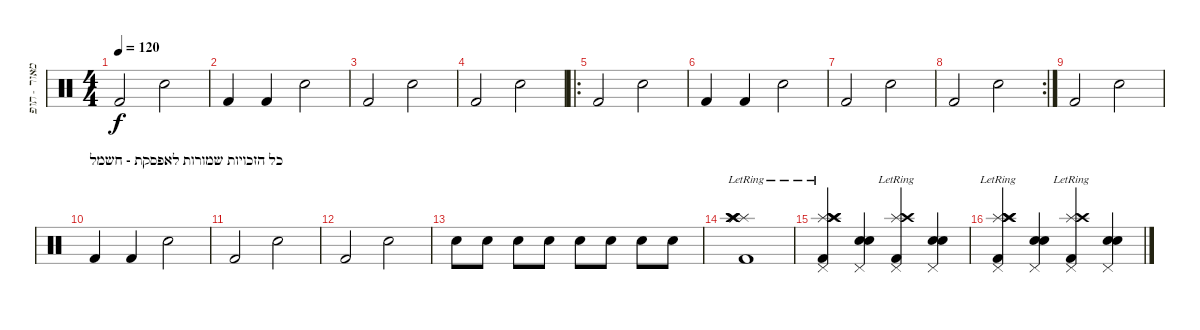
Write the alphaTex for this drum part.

\track ("מאור - תופים" "מאור - תופ") {instrument percussion}
\staff {score}
\articulation defaults
\ts (4 4)
\tempo 120
\clef neutral
\ks c "Kick (hit) 2".2{dy f} "Electric Snare (hit)".2
|
"Kick (hit) 2".4 "Kick (hit) 2".4 "Electric Snare (hit)".2 |
"Kick (hit) 2".2 "Electric Snare (hit)".2 |
"Kick (hit) 2".2 "Electric Snare (hit)".2 |
\ro "Kick (hit) 2".2 "Electric Snare (hit)".2
|
"Kick (hit) 2".4 "Kick (hit) 2".4 "Electric Snare (hit)".2 |
"Kick (hit) 2".2 "Electric Snare (hit)".2 |
\rc 2 "Kick (hit) 2".2 "Electric Snare (hit)".2
|
"Kick (hit) 2".2 "Electric Snare (hit)".2 |
\section ("" "כל הזכויות שמורות לאפסקת - חשמל")
"Kick (hit) 2".4 "Kick (hit) 2".4 "Electric Snare (hit)".2 |
"Kick (hit) 2".2 "Electric Snare (hit)".2 |
"Kick (hit) 2".2 "Electric Snare (hit)".2 |
"Electric Snare (hit)".8 "Electric Snare (hit)".8 "Electric Snare (hit)".8 "Electric Snare (hit)".8 "Electric Snare (hit)".8 "Electric Snare (hit)".8 "Electric Snare (hit)".8 "Electric Snare (hit)".8 |
("Kick (hit) 2"{lr} "Splash (hit)"{lr} "Crash high (hit)"{lr} "Splash (hit)"{lr} "Splash (hit)"{lr} "Crash high (hit)"{lr}).1 |
("Kick (hit) 2" "Splash (hit)" "Splash (hit)"{lr} "Crash high (hit)"{lr} "Crash high (hit)" "Pedal Hi-Hat (hit)").4 ("Electric Snare (hit)" "Electric Snare (hit)" "Pedal Hi-Hat (hit)").4 ("Kick (hit) 2" "Splash (hit)"{lr} "Crash high (hit)"{lr} "Pedal Hi-Hat (hit)").4 ("Electric Snare (hit)" "Electric Snare (hit)" "Pedal Hi-Hat (hit)").4 |
("Kick (hit) 2" "Splash (hit)" "Splash (hit)"{lr} "Crash high (hit)"{lr} "Crash high (hit)" "Pedal Hi-Hat (hit)").4 ("Electric Snare (hit)" "Electric Snare (hit)" "Pedal Hi-Hat (hit)").4 ("Kick (hit) 2" "Splash (hit)"{lr} "Crash high (hit)"{lr} "Pedal Hi-Hat (hit)").4 ("Electric Snare (hit)" "Electric Snare (hit)" "Pedal Hi-Hat (hit)").4
